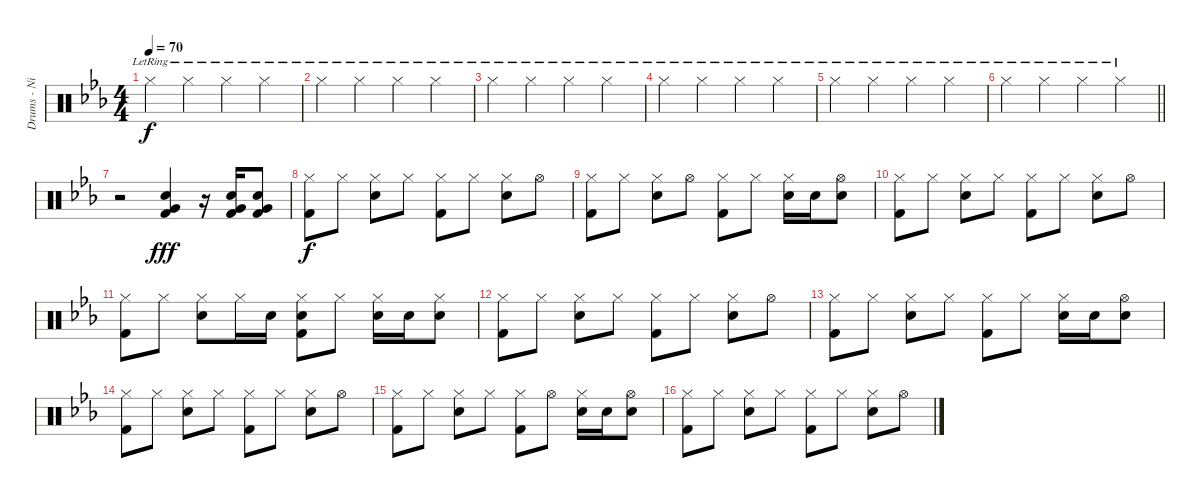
\track ("Drums - Nigel Olsen" "Drums - Ni") {instrument percussion}
\staff {score}
\articulation defaults
\ts (4 4)
\tempo 70
\clef neutral
\ks cminor "Hi-Hat (closed)"{lr}.4{dy f} "Hi-Hat (closed)"{lr}.4 "Hi-Hat (closed)"{lr}.4 "Hi-Hat (closed)"{lr}.4
|
"Hi-Hat (closed)"{lr}.4 "Hi-Hat (closed)"{lr}.4 "Hi-Hat (closed)"{lr}.4 "Hi-Hat (closed)"{lr}.4 |
"Hi-Hat (closed)"{lr}.4 "Hi-Hat (closed)"{lr}.4 "Hi-Hat (closed)"{lr}.4 "Hi-Hat (closed)"{lr}.4 |
"Hi-Hat (closed)"{lr}.4 "Hi-Hat (closed)"{lr}.4 "Hi-Hat (closed)"{lr}.4 "Hi-Hat (closed)"{lr}.4 |
"Hi-Hat (closed)"{lr}.4 "Hi-Hat (closed)"{lr}.4 "Hi-Hat (closed)"{lr}.4 "Hi-Hat (closed)"{lr}.4 |
\barLineRight lightlight "Hi-Hat (closed)"{lr}.4 "Hi-Hat (closed)"{lr}.4 "Hi-Hat (closed)"{lr}.4 "Hi-Hat (closed)"{lr}.4
|
r.2{volume 8} ("Very Low Tom (hit)" "Snare (hit) 2" "Kick (hit) 2").4{dy fff} r.16 ("Very Low Tom (hit)" "Snare (hit) 2" "Kick (hit) 2").16 ("Very Low Tom (hit)" "Snare (hit) 2" "Kick (hit) 2").8 |
("Hi-Hat (closed)" "Kick (hit) 2").8{dy f} "Hi-Hat (closed)".8 ("Hi-Hat (closed)" "Snare (hit) 2").8 "Hi-Hat (closed)".8 ("Hi-Hat (closed)" "Kick (hit) 2").8 "Hi-Hat (closed)".8 ("Hi-Hat (closed)" "Snare (hit) 2").8 "Hi-Hat (open)".8 |
("Hi-Hat (closed)" "Kick (hit) 2").8 "Hi-Hat (closed)".8 ("Hi-Hat (closed)" "Snare (hit) 2").8 "Hi-Hat (open)".8 ("Hi-Hat (closed)" "Kick (hit) 2").8 "Hi-Hat (closed)".8 ("Hi-Hat (closed)" "Snare (hit) 2").16 "Snare (hit) 2".16 ("Hi-Hat (open)" "Snare (hit) 2").8 |
("Hi-Hat (closed)" "Kick (hit) 2").8 "Hi-Hat (closed)".8 ("Hi-Hat (closed)" "Snare (hit) 2").8 "Hi-Hat (closed)".8 ("Hi-Hat (closed)" "Kick (hit) 2").8 "Hi-Hat (closed)".8 ("Hi-Hat (closed)" "Snare (hit) 2").8 "Hi-Hat (open)".8 |
("Hi-Hat (closed)" "Kick (hit) 2").8 "Hi-Hat (closed)".8 ("Hi-Hat (closed)" "Snare (hit) 2").8 "Hi-Hat (closed)".16 "Snare (hit) 2".16 ("Hi-Hat (closed)" "Snare (hit) 2" "Kick (hit) 2").8 "Hi-Hat (closed)".8 ("Hi-Hat (closed)" "Snare (hit) 2").16 "Snare (hit) 2".16 ("Hi-Hat (closed)" "Snare (hit) 2").8 |
("Hi-Hat (closed)" "Kick (hit) 2").8 "Hi-Hat (closed)".8 ("Hi-Hat (closed)" "Snare (hit) 2").8 "Hi-Hat (closed)".8 ("Hi-Hat (closed)" "Kick (hit) 2").8 "Hi-Hat (closed)".8 ("Hi-Hat (closed)" "Snare (hit) 2").8 "Hi-Hat (open)".8 |
("Hi-Hat (closed)" "Kick (hit) 2").8 "Hi-Hat (closed)".8 ("Hi-Hat (closed)" "Snare (hit) 2").8 "Hi-Hat (closed)".8 ("Hi-Hat (closed)" "Kick (hit) 2").8 "Hi-Hat (closed)".8 ("Hi-Hat (closed)" "Snare (hit) 2").16 "Snare (hit) 2".16 ("Hi-Hat (open)" "Snare (hit) 2").8 |
("Hi-Hat (closed)" "Kick (hit) 2").8 "Hi-Hat (closed)".8 ("Hi-Hat (closed)" "Snare (hit) 2").8 "Hi-Hat (closed)".8 ("Hi-Hat (closed)" "Kick (hit) 2").8 "Hi-Hat (closed)".8 ("Hi-Hat (closed)" "Snare (hit) 2").8 "Hi-Hat (open)".8 |
("Hi-Hat (closed)" "Kick (hit) 2").8 "Hi-Hat (closed)".8 ("Hi-Hat (closed)" "Snare (hit) 2").8 "Hi-Hat (closed)".8 ("Hi-Hat (closed)" "Kick (hit) 2").8 "Hi-Hat (open)".8 ("Hi-Hat (closed)" "Snare (hit) 2").16 "Snare (hit) 2".16 ("Hi-Hat (open)" "Snare (hit) 2").8 |
("Hi-Hat (closed)" "Kick (hit) 2").8 "Hi-Hat (closed)".8 ("Hi-Hat (closed)" "Snare (hit) 2").8 "Hi-Hat (closed)".8 ("Hi-Hat (closed)" "Kick (hit) 2").8 "Hi-Hat (closed)".8 ("Hi-Hat (closed)" "Snare (hit) 2").8 "Hi-Hat (open)".8
